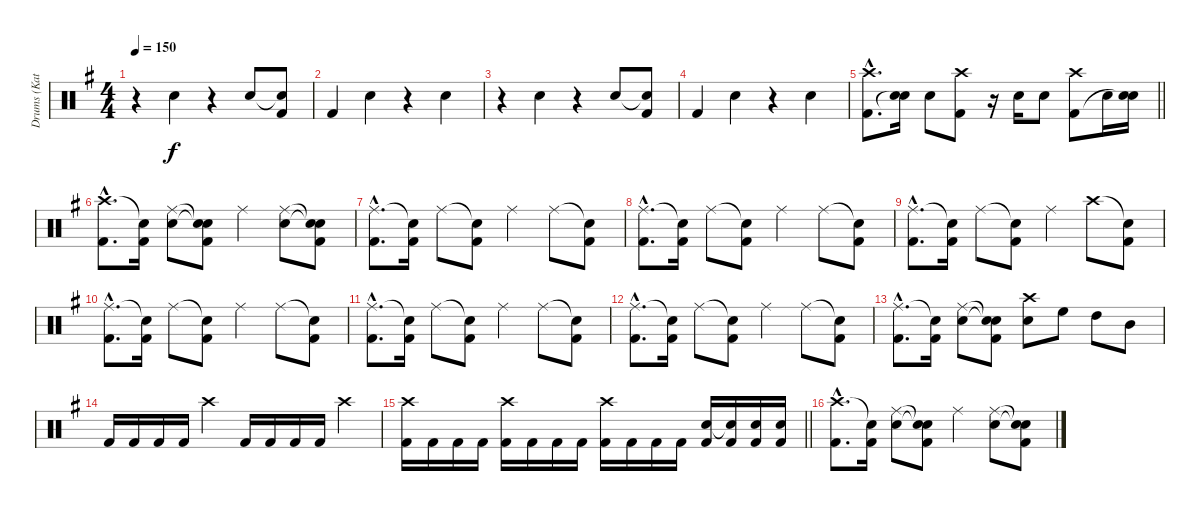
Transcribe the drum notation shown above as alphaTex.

\track ("Drums (Katsuji)" "Drums (Kat") {instrument percussion}
\staff {score}
\articulation defaults
\ts (4 4)
\tempo 150
\clef neutral
\ks g
r.4{dy f} "Snare (hit) 2".4 r.4 "Snare (hit) 2".8 ("Snare (hit)"{t} "Kick (hit) 2").8 |
"Kick (hit) 2".4 "Snare (hit) 2".4 r.4 "Snare (hit) 2".4 |
r.4 "Snare (hit) 2".4 r.4 "Snare (hit) 2".8 ("Snare (hit)"{t} "Kick (hit) 2").8 |
"Kick (hit) 2".4 "Snare (hit) 2".4 r.4 "Snare (hit) 2".4 |
\barLineRight lightlight
("Crash high (hit)"{hac} "Kick (hit) 2"{hac}).8{d} ("Snare (hit) 2" "Snare (hit)"{t}).16 "Snare (hit) 2".8 ("Crash high (hit)" "Kick (hit) 2").8 r.16 "Snare (hit) 2".16 "Snare (hit) 2".8 ("Crash high (hit)" "Kick (hit) 2").8 "Snare (hit) 2".16 ("Snare (hit) 2" "Snare (hit)"{t}).16 |
("Crash high (hit)"{hac} "Kick (hit) 2"{hac}).8{d} ("Snare (hit)"{t} "Kick (hit) 2").16 ("Ride (middle)" "Snare (hit) 2").8 ("Snare (hit)"{t} "Snare (hit)"{t} "Kick (hit) 2").8 "Ride (middle)".4 ("Ride (middle)" "Snare (hit) 2").8 ("Snare (hit)"{t} "Snare (hit)"{t} "Kick (hit) 2").8 |
("Ride (middle)"{hac} "Kick (hit) 2"{hac}).8{d} ("Snare (hit)"{t} "Kick (hit) 2").16 "Ride (middle)".8 ("Snare (hit)"{t} "Kick (hit) 2").8 "Ride (middle)".4 "Ride (middle)".8 ("Snare (hit)"{t} "Kick (hit) 2").8 |
("Ride (middle)"{hac} "Kick (hit) 2"{hac}).8{d} ("Snare (hit)"{t} "Kick (hit) 2").16 "Ride (middle)".8 ("Snare (hit)"{t} "Kick (hit) 2").8 "Ride (middle)".4 "Ride (middle)".8 ("Snare (hit)"{t} "Kick (hit) 2").8 |
("Ride (middle)"{hac} "Kick (hit) 2"{hac}).8{d} ("Snare (hit)"{t} "Kick (hit) 2").16 "Ride (middle)".8 ("Snare (hit)"{t} "Kick (hit) 2").8 "Ride (middle)".4 "Crash high (hit)".8 ("Snare (hit)"{t} "Kick (hit) 2").8 |
("Ride (middle)"{hac} "Kick (hit) 2"{hac}).8{d} ("Snare (hit)"{t} "Kick (hit) 2").16 "Ride (middle)".8 ("Snare (hit)"{t} "Kick (hit) 2").8 "Ride (middle)".4 "Ride (middle)".8 ("Snare (hit)"{t} "Kick (hit) 2").8 |
("Ride (middle)"{hac} "Kick (hit) 2"{hac}).8{d} ("Snare (hit)"{t} "Kick (hit) 2").16 "Ride (middle)".8 ("Snare (hit)"{t} "Kick (hit) 2").8 "Ride (middle)".4 "Ride (middle)".8 ("Snare (hit)"{t} "Kick (hit) 2").8 |
("Ride (middle)"{hac} "Kick (hit) 2"{hac}).8{d} ("Snare (hit)"{t} "Kick (hit) 2").16 "Ride (middle)".8 ("Snare (hit)"{t} "Kick (hit) 2").8 "Ride (middle)".4 "Ride (middle)".8 ("Snare (hit)"{t} "Kick (hit) 2").8 |
("Ride (middle)"{hac} "Kick (hit) 2"{hac}).8{d} ("Snare (hit)"{t} "Kick (hit) 2").16 ("Ride (middle)" "Snare (hit) 2").8 ("Snare (hit)"{t} "Snare (hit)"{t} "Kick (hit) 2").8 ("Crash high (hit)" "Snare (hit) 2").8 "High Floor Tom (hit)".8 "High Tom (hit)".8 "Mid Tom (hit)".8 |
"Kick (hit) 2".16 "Kick (hit) 2".16 "Kick (hit) 2".16 "Kick (hit) 2".16 "Crash high (hit)".4 "Kick (hit) 2".16 "Kick (hit) 2".16 "Kick (hit) 2".16 "Kick (hit) 2".16 "Crash high (hit)".4 |
\barLineRight lightlight
("Crash high (hit)" "Kick (hit) 2").16 "Kick (hit) 2".16 "Kick (hit) 2".16 "Kick (hit) 2".16 ("Crash high (hit)" "Kick (hit) 2").16 "Kick (hit) 2".16 "Kick (hit) 2".16 "Kick (hit) 2".16 ("Crash high (hit)" "Kick (hit) 2").16 "Kick (hit) 2".16 "Kick (hit) 2".16 "Kick (hit) 2".16 ("Snare (hit) 2" "Kick (hit) 2").16 ("Snare (hit)"{t} "Kick (hit) 2").16 ("Snare (hit) 2" "Kick (hit) 2").16 ("Snare (hit) 2" "Kick (hit) 2").16 |
("Crash high (hit)"{hac} "Kick (hit) 2"{hac}).8{d} ("Snare (hit)"{t} "Kick (hit) 2").16 ("Ride (middle)" "Snare (hit) 2").8 ("Snare (hit)"{t} "Snare (hit)"{t} "Kick (hit) 2").8 "Ride (middle)".4 ("Ride (middle)" "Snare (hit) 2").8 ("Snare (hit)"{t} "Snare (hit)"{t} "Kick (hit) 2").8
